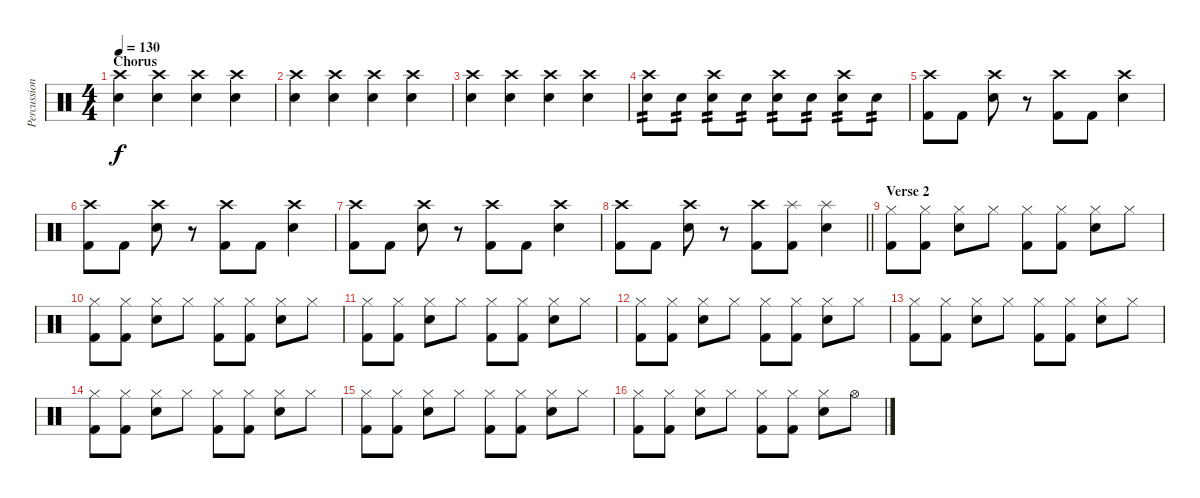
\track ("Percussion" "Percussion") {instrument percussion}
\staff {score}
\articulation defaults
\ts (4 4)
\section ("" "Chorus")
\tempo 130
\clef neutral
\ks c
("Crash high (hit)" "Electric Snare (hit)").4{dy f} ("Crash high (hit)" "Electric Snare (hit)").4 ("Crash high (hit)" "Electric Snare (hit)").4 ("Crash high (hit)" "Electric Snare (hit)").4 |
("Crash high (hit)" "Electric Snare (hit)").4 ("Crash high (hit)" "Electric Snare (hit)").4 ("Crash high (hit)" "Electric Snare (hit)").4 ("Crash high (hit)" "Electric Snare (hit)").4 |
("Crash high (hit)" "Electric Snare (hit)").4 ("Crash high (hit)" "Electric Snare (hit)").4 ("Crash high (hit)" "Electric Snare (hit)").4 ("Crash high (hit)" "Electric Snare (hit)").4 |
("Crash high (hit)" "Electric Snare (hit)").8{tp 2} "Electric Snare (hit)".8{tp 2} ("Crash high (hit)" "Electric Snare (hit)").8{tp 2} "Electric Snare (hit)".8{tp 2} ("Crash high (hit)" "Electric Snare (hit)").8{tp 2} "Electric Snare (hit)".8{tp 2} ("Crash high (hit)" "Electric Snare (hit)").8{tp 2} "Electric Snare (hit)".8{tp 2} |
("Crash high (hit)" "Kick (hit) 2").8 "Kick (hit) 2".8 ("Crash high (hit)" "Electric Snare (hit)").8 r.8 ("Crash high (hit)" "Kick (hit) 2").8 "Kick (hit) 2".8 ("Crash high (hit)" "Electric Snare (hit)").4 |
("Crash high (hit)" "Kick (hit) 2").8 "Kick (hit) 2".8 ("Crash high (hit)" "Electric Snare (hit)").8 r.8 ("Crash high (hit)" "Kick (hit) 2").8 "Kick (hit) 2".8 ("Crash high (hit)" "Electric Snare (hit)").4 |
("Crash high (hit)" "Kick (hit) 2").8 "Kick (hit) 2".8 ("Crash high (hit)" "Electric Snare (hit)").8 r.8 ("Crash high (hit)" "Kick (hit) 2").8 "Kick (hit) 2".8 ("Crash high (hit)" "Electric Snare (hit)").4 |
\barLineRight lightlight
("Crash high (hit)" "Kick (hit) 2").8 "Kick (hit) 2".8 ("Crash high (hit)" "Electric Snare (hit)").8 r.8 ("Crash high (hit)" "Kick (hit) 2").8 ("Splash (hit)" "Kick (hit) 2").8 ("Splash (hit)" "Electric Snare (hit)").4 |
\section ("" "Verse 2")
("Hi-Hat (closed)" "Kick (hit) 2").8 ("Hi-Hat (closed)" "Kick (hit) 2").8 ("Hi-Hat (closed)" "Electric Snare (hit)").8 "Hi-Hat (closed)".8 ("Hi-Hat (closed)" "Kick (hit) 2").8 ("Hi-Hat (closed)" "Kick (hit) 2").8 ("Hi-Hat (closed)" "Electric Snare (hit)").8 "Hi-Hat (closed)".8 |
("Hi-Hat (closed)" "Kick (hit) 2").8 ("Hi-Hat (closed)" "Kick (hit) 2").8 ("Hi-Hat (closed)" "Electric Snare (hit)").8 "Hi-Hat (closed)".8 ("Hi-Hat (closed)" "Kick (hit) 2").8 ("Hi-Hat (closed)" "Kick (hit) 2").8 ("Hi-Hat (closed)" "Electric Snare (hit)").8 "Hi-Hat (closed)".8 |
("Hi-Hat (closed)" "Kick (hit) 2").8 ("Hi-Hat (closed)" "Kick (hit) 2").8 ("Hi-Hat (closed)" "Electric Snare (hit)").8 "Hi-Hat (closed)".8 ("Hi-Hat (closed)" "Kick (hit) 2").8 ("Hi-Hat (closed)" "Kick (hit) 2").8 ("Hi-Hat (closed)" "Electric Snare (hit)").8 "Hi-Hat (closed)".8 |
("Hi-Hat (closed)" "Kick (hit) 2").8 ("Hi-Hat (closed)" "Kick (hit) 2").8 ("Hi-Hat (closed)" "Electric Snare (hit)").8 "Hi-Hat (closed)".8 ("Hi-Hat (closed)" "Kick (hit) 2").8 ("Hi-Hat (closed)" "Kick (hit) 2").8 ("Hi-Hat (closed)" "Electric Snare (hit)").8 "Hi-Hat (closed)".8 |
("Hi-Hat (closed)" "Kick (hit) 2").8 ("Hi-Hat (closed)" "Kick (hit) 2").8 ("Hi-Hat (closed)" "Electric Snare (hit)").8 "Hi-Hat (closed)".8 ("Hi-Hat (closed)" "Kick (hit) 2").8 ("Hi-Hat (closed)" "Kick (hit) 2").8 ("Hi-Hat (closed)" "Electric Snare (hit)").8 "Hi-Hat (closed)".8 |
("Hi-Hat (closed)" "Kick (hit) 2").8 ("Hi-Hat (closed)" "Kick (hit) 2").8 ("Hi-Hat (closed)" "Electric Snare (hit)").8 "Hi-Hat (closed)".8 ("Hi-Hat (closed)" "Kick (hit) 2").8 ("Hi-Hat (closed)" "Kick (hit) 2").8 ("Hi-Hat (closed)" "Electric Snare (hit)").8 "Hi-Hat (closed)".8 |
("Hi-Hat (closed)" "Kick (hit) 2").8 ("Hi-Hat (closed)" "Kick (hit) 2").8 ("Hi-Hat (closed)" "Electric Snare (hit)").8 "Hi-Hat (closed)".8 ("Hi-Hat (closed)" "Kick (hit) 2").8 ("Hi-Hat (closed)" "Kick (hit) 2").8 ("Hi-Hat (closed)" "Electric Snare (hit)").8 "Hi-Hat (closed)".8 |
("Hi-Hat (closed)" "Kick (hit) 2").8 ("Hi-Hat (closed)" "Kick (hit) 2").8 ("Hi-Hat (closed)" "Electric Snare (hit)").8 "Hi-Hat (closed)".8 ("Hi-Hat (closed)" "Kick (hit) 2").8 ("Hi-Hat (closed)" "Kick (hit) 2").8 ("Hi-Hat (closed)" "Electric Snare (hit)").8 "Hi-Hat (open)".8
